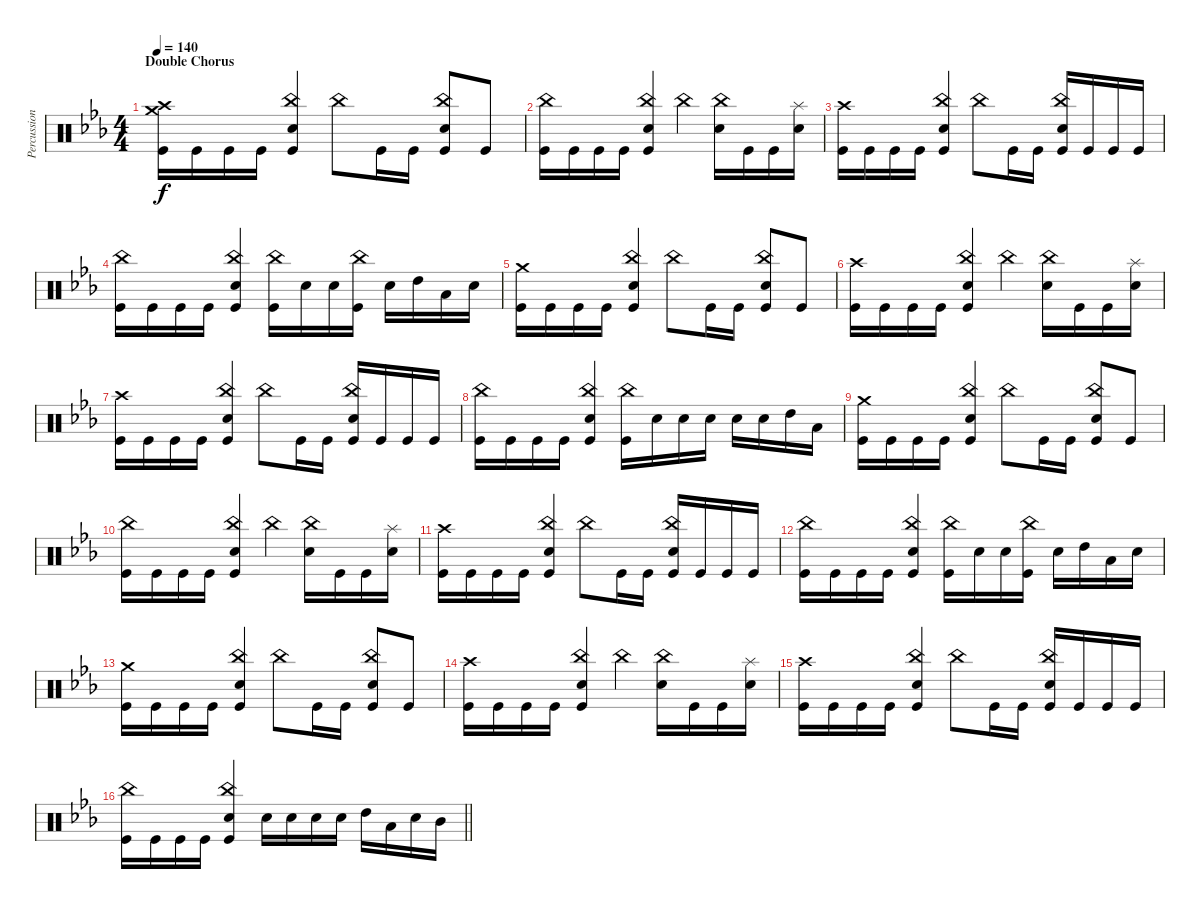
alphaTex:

\track ("Percussion" "Percussion") {instrument percussion}
\staff {score}
\articulation defaults
\ts (4 4)
\section ("" "Double Chorus")
\tempo 140
\clef neutral
\ks eb
("Crash high (hit)" "Crash medium (hit)" "Kick (hit)").16{dy f} "Kick (hit)".16 "Kick (hit)".16 "Kick (hit)".16 ("China (hit)" "Electric Snare (hit)" "Kick (hit)").4 "China (hit)".8 "Kick (hit)".16 "Kick (hit)".16 ("China (hit)" "Electric Snare (hit)" "Kick (hit)").8 "Kick (hit)".8 |
("China (hit)" "Kick (hit)").16 "Kick (hit)".16 "Kick (hit)".16 "Kick (hit)".16 ("China (hit)" "Electric Snare (hit)" "Kick (hit)").4 "China (hit)".4 ("China (hit)" "Electric Snare (hit)").16 "Kick (hit)".16 "Kick (hit)".16 ("Splash (hit)" "Electric Snare (hit)").16 |
("Crash high (hit)" "Kick (hit)").16 "Kick (hit)".16 "Kick (hit)".16 "Kick (hit)".16 ("China (hit)" "Electric Snare (hit)" "Kick (hit)").4 "China (hit)".8 "Kick (hit)".16 "Kick (hit)".16 ("China (hit)" "Electric Snare (hit)" "Kick (hit)").16 "Kick (hit)".16 "Kick (hit)".16 "Kick (hit)".16 |
("China (hit)" "Kick (hit)").16 "Kick (hit)".16 "Kick (hit)".16 "Kick (hit)".16 ("China (hit)" "Electric Snare (hit)" "Kick (hit)").4 ("China (hit)" "Kick (hit)").16 "Electric Snare (hit)".16 "Electric Snare (hit)".16 ("China (hit)" "Kick (hit)").16 "Electric Snare (hit)".16 "High Tom (hit)".16 "Low Tom (hit)".16 "Electric Snare (hit)".16 |
("Crash medium (hit)" "Kick (hit)").16 "Kick (hit)".16 "Kick (hit)".16 "Kick (hit)".16 ("China (hit)" "Electric Snare (hit)" "Kick (hit)").4 "China (hit)".8 "Kick (hit)".16 "Kick (hit)".16 ("China (hit)" "Electric Snare (hit)" "Kick (hit)").8 "Kick (hit)".8 |
("Crash high (hit)" "Kick (hit)").16 "Kick (hit)".16 "Kick (hit)".16 "Kick (hit)".16 ("China (hit)" "Electric Snare (hit)" "Kick (hit)").4 "China (hit)".4 ("China (hit)" "Electric Snare (hit)").16 "Kick (hit)".16 "Kick (hit)".16 ("Splash (hit)" "Electric Snare (hit)").16 |
("Crash high (hit)" "Kick (hit)").16 "Kick (hit)".16 "Kick (hit)".16 "Kick (hit)".16 ("China (hit)" "Electric Snare (hit)" "Kick (hit)").4 "China (hit)".8 "Kick (hit)".16 "Kick (hit)".16 ("China (hit)" "Electric Snare (hit)" "Kick (hit)").16 "Kick (hit)".16 "Kick (hit)".16 "Kick (hit)".16 |
("China (hit)" "Kick (hit)").16 "Kick (hit)".16 "Kick (hit)".16 "Kick (hit)".16 ("China (hit)" "Electric Snare (hit)" "Kick (hit)").4 ("China (hit)" "Kick (hit)").16 "Electric Snare (hit)".16 "Electric Snare (hit)".16 "Electric Snare (hit)".16 "Electric Snare (hit)".16 "Electric Snare (hit)".16 "High Tom (hit)".16 "Low Tom (hit)".16 |
("Crash medium (hit)" "Kick (hit)").16 "Kick (hit)".16 "Kick (hit)".16 "Kick (hit)".16 ("China (hit)" "Electric Snare (hit)" "Kick (hit)").4 "China (hit)".8 "Kick (hit)".16 "Kick (hit)".16 ("China (hit)" "Electric Snare (hit)" "Kick (hit)").8 "Kick (hit)".8 |
("China (hit)" "Kick (hit)").16 "Kick (hit)".16 "Kick (hit)".16 "Kick (hit)".16 ("China (hit)" "Electric Snare (hit)" "Kick (hit)").4 "China (hit)".4 ("China (hit)" "Electric Snare (hit)").16 "Kick (hit)".16 "Kick (hit)".16 ("Splash (hit)" "Electric Snare (hit)").16 |
("Crash high (hit)" "Kick (hit)").16 "Kick (hit)".16 "Kick (hit)".16 "Kick (hit)".16 ("China (hit)" "Electric Snare (hit)" "Kick (hit)").4 "China (hit)".8 "Kick (hit)".16 "Kick (hit)".16 ("China (hit)" "Electric Snare (hit)" "Kick (hit)").16 "Kick (hit)".16 "Kick (hit)".16 "Kick (hit)".16 |
("China (hit)" "Kick (hit)").16 "Kick (hit)".16 "Kick (hit)".16 "Kick (hit)".16 ("China (hit)" "Electric Snare (hit)" "Kick (hit)").4 ("China (hit)" "Kick (hit)").16 "Electric Snare (hit)".16 "Electric Snare (hit)".16 ("China (hit)" "Kick (hit)").16 "Electric Snare (hit)".16 "High Tom (hit)".16 "Low Tom (hit)".16 "Electric Snare (hit)".16 |
("Crash medium (hit)" "Kick (hit)").16 "Kick (hit)".16 "Kick (hit)".16 "Kick (hit)".16 ("China (hit)" "Electric Snare (hit)" "Kick (hit)").4 "China (hit)".8 "Kick (hit)".16 "Kick (hit)".16 ("China (hit)" "Electric Snare (hit)" "Kick (hit)").8 "Kick (hit)".8 |
("Crash high (hit)" "Kick (hit)").16 "Kick (hit)".16 "Kick (hit)".16 "Kick (hit)".16 ("China (hit)" "Electric Snare (hit)" "Kick (hit)").4 "China (hit)".4 ("China (hit)" "Electric Snare (hit)").16 "Kick (hit)".16 "Kick (hit)".16 ("Splash (hit)" "Electric Snare (hit)").16 |
("Crash high (hit)" "Kick (hit)").16 "Kick (hit)".16 "Kick (hit)".16 "Kick (hit)".16 ("China (hit)" "Electric Snare (hit)" "Kick (hit)").4 "China (hit)".8 "Kick (hit)".16 "Kick (hit)".16 ("China (hit)" "Electric Snare (hit)" "Kick (hit)").16 "Kick (hit)".16 "Kick (hit)".16 "Kick (hit)".16 |
\barLineRight lightlight
("China (hit)" "Kick (hit)").16 "Kick (hit)".16 "Kick (hit)".16 "Kick (hit)".16 ("China (hit)" "Electric Snare (hit)" "Kick (hit)").4 "Electric Snare (hit)".16 "Electric Snare (hit)".16 "Electric Snare (hit)".16 "Electric Snare (hit)".16 "High Tom (hit)".16 "Low Tom (hit)".16 "Electric Snare (hit)".16 "Mid Tom (hit)".16
